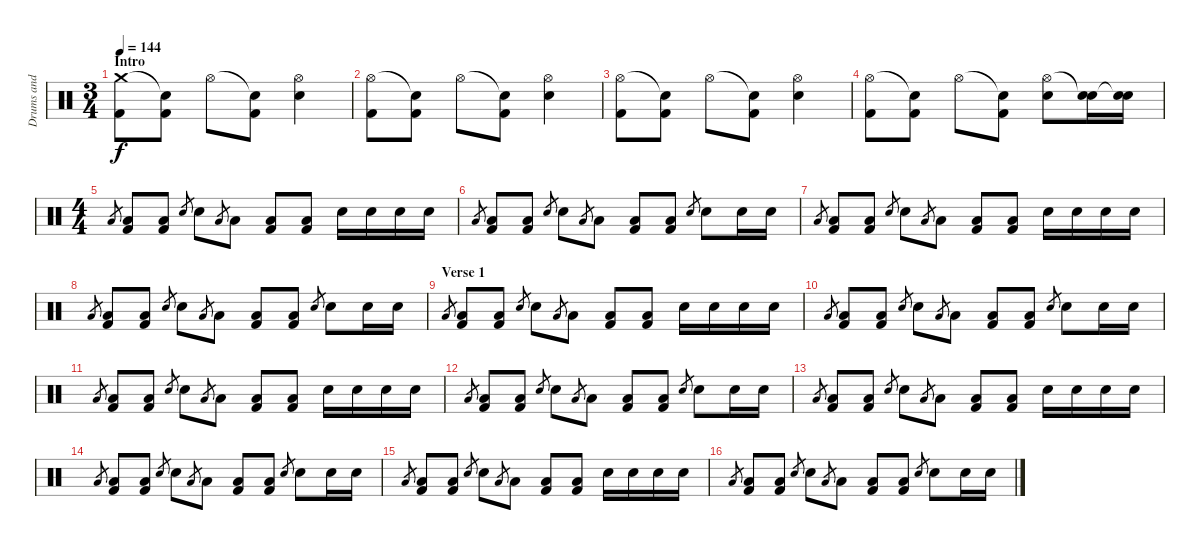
\track ("Drums and Percussion" "Drums and ") {instrument percussion}
\staff {score}
\articulation defaults
\ts (3 4)
\section ("" "Intro")
\tempo 144
\clef neutral
\ks c
("Crash medium (hit)" "Kick (hit) 2").8{dy f} ("Snare (hit)"{t} "Kick (hit) 2").8 "Hi-Hat (open)".8 ("Snare (hit)"{t} "Kick (hit) 2").8 ("Hi-Hat (open)" "Electric Snare (hit)").4 |
("Hi-Hat (open)" "Kick (hit) 2").8 ("Snare (hit)"{t} "Kick (hit) 2").8 "Hi-Hat (open)".8 ("Snare (hit)"{t} "Kick (hit) 2").8 ("Hi-Hat (open)" "Electric Snare (hit)").4 |
("Hi-Hat (open)" "Kick (hit) 2").8 ("Snare (hit)"{t} "Kick (hit) 2").8 "Hi-Hat (open)".8 ("Snare (hit)"{t} "Kick (hit) 2").8 ("Hi-Hat (open)" "Electric Snare (hit)").4 |
("Hi-Hat (open)" "Kick (hit) 2").8 ("Snare (hit)"{t} "Kick (hit) 2").8 "Hi-Hat (open)".8 ("Snare (hit)"{t} "Kick (hit) 2").8 ("Hi-Hat (open)" "Electric Snare (hit)").8 ("Snare (hit)"{t} "Electric Snare (hit)").16 ("Snare (hit)"{t} "Electric Snare (hit)").16 |
\ts (4 4)
"Low Floor Tom (hit)".8{gr} ("Low Floor Tom (hit)" "Kick (hit) 2").8 ("Low Floor Tom (hit)" "Kick (hit) 2").8 "Electric Snare (hit)".8{gr} "Electric Snare (hit)".8 "Low Floor Tom (hit)".8{gr} "Low Floor Tom (hit)".8 ("Low Floor Tom (hit)" "Kick (hit) 2").8 ("Low Floor Tom (hit)" "Kick (hit) 2").8 "Electric Snare (hit)".16 "Electric Snare (hit)".16 "Electric Snare (hit)".16 "Electric Snare (hit)".16 |
"Low Floor Tom (hit)".8{gr} ("Low Floor Tom (hit)" "Kick (hit) 2").8 ("Low Floor Tom (hit)" "Kick (hit) 2").8 "Electric Snare (hit)".8{gr} "Electric Snare (hit)".8 "Low Floor Tom (hit)".8{gr} "Low Floor Tom (hit)".8 ("Low Floor Tom (hit)" "Kick (hit) 2").8 ("Low Floor Tom (hit)" "Kick (hit) 2").8 "Electric Snare (hit)".8{gr} "Electric Snare (hit)".8 "Electric Snare (hit)".16 "Electric Snare (hit)".16 |
"Low Floor Tom (hit)".8{gr} ("Low Floor Tom (hit)" "Kick (hit) 2").8 ("Low Floor Tom (hit)" "Kick (hit) 2").8 "Electric Snare (hit)".8{gr} "Electric Snare (hit)".8 "Low Floor Tom (hit)".8{gr} "Low Floor Tom (hit)".8 ("Low Floor Tom (hit)" "Kick (hit) 2").8 ("Low Floor Tom (hit)" "Kick (hit) 2").8 "Electric Snare (hit)".16 "Electric Snare (hit)".16 "Electric Snare (hit)".16 "Electric Snare (hit)".16 |
"Low Floor Tom (hit)".8{gr} ("Low Floor Tom (hit)" "Kick (hit) 2").8 ("Low Floor Tom (hit)" "Kick (hit) 2").8 "Electric Snare (hit)".8{gr} "Electric Snare (hit)".8 "Low Floor Tom (hit)".8{gr} "Low Floor Tom (hit)".8 ("Low Floor Tom (hit)" "Kick (hit) 2").8 ("Low Floor Tom (hit)" "Kick (hit) 2").8 "Electric Snare (hit)".8{gr} "Electric Snare (hit)".8 "Electric Snare (hit)".16 "Electric Snare (hit)".16 |
\section ("" "Verse 1")
"Low Floor Tom (hit)".8{gr} ("Low Floor Tom (hit)" "Kick (hit) 2").8 ("Low Floor Tom (hit)" "Kick (hit) 2").8 "Electric Snare (hit)".8{gr} "Electric Snare (hit)".8 "Low Floor Tom (hit)".8{gr} "Low Floor Tom (hit)".8 ("Low Floor Tom (hit)" "Kick (hit) 2").8 ("Low Floor Tom (hit)" "Kick (hit) 2").8 "Electric Snare (hit)".16 "Electric Snare (hit)".16 "Electric Snare (hit)".16 "Electric Snare (hit)".16 |
"Low Floor Tom (hit)".8{gr} ("Low Floor Tom (hit)" "Kick (hit) 2").8 ("Low Floor Tom (hit)" "Kick (hit) 2").8 "Electric Snare (hit)".8{gr} "Electric Snare (hit)".8 "Low Floor Tom (hit)".8{gr} "Low Floor Tom (hit)".8 ("Low Floor Tom (hit)" "Kick (hit) 2").8 ("Low Floor Tom (hit)" "Kick (hit) 2").8 "Electric Snare (hit)".8{gr} "Electric Snare (hit)".8 "Electric Snare (hit)".16 "Electric Snare (hit)".16 |
"Low Floor Tom (hit)".8{gr} ("Low Floor Tom (hit)" "Kick (hit) 2").8 ("Low Floor Tom (hit)" "Kick (hit) 2").8 "Electric Snare (hit)".8{gr} "Electric Snare (hit)".8 "Low Floor Tom (hit)".8{gr} "Low Floor Tom (hit)".8 ("Low Floor Tom (hit)" "Kick (hit) 2").8 ("Low Floor Tom (hit)" "Kick (hit) 2").8 "Electric Snare (hit)".16 "Electric Snare (hit)".16 "Electric Snare (hit)".16 "Electric Snare (hit)".16 |
"Low Floor Tom (hit)".8{gr} ("Low Floor Tom (hit)" "Kick (hit) 2").8 ("Low Floor Tom (hit)" "Kick (hit) 2").8 "Electric Snare (hit)".8{gr} "Electric Snare (hit)".8 "Low Floor Tom (hit)".8{gr} "Low Floor Tom (hit)".8 ("Low Floor Tom (hit)" "Kick (hit) 2").8 ("Low Floor Tom (hit)" "Kick (hit) 2").8 "Electric Snare (hit)".8{gr} "Electric Snare (hit)".8 "Electric Snare (hit)".16 "Electric Snare (hit)".16 |
"Low Floor Tom (hit)".8{gr} ("Low Floor Tom (hit)" "Kick (hit) 2").8 ("Low Floor Tom (hit)" "Kick (hit) 2").8 "Electric Snare (hit)".8{gr} "Electric Snare (hit)".8 "Low Floor Tom (hit)".8{gr} "Low Floor Tom (hit)".8 ("Low Floor Tom (hit)" "Kick (hit) 2").8 ("Low Floor Tom (hit)" "Kick (hit) 2").8 "Electric Snare (hit)".16 "Electric Snare (hit)".16 "Electric Snare (hit)".16 "Electric Snare (hit)".16 |
"Low Floor Tom (hit)".8{gr} ("Low Floor Tom (hit)" "Kick (hit) 2").8 ("Low Floor Tom (hit)" "Kick (hit) 2").8 "Electric Snare (hit)".8{gr} "Electric Snare (hit)".8 "Low Floor Tom (hit)".8{gr} "Low Floor Tom (hit)".8 ("Low Floor Tom (hit)" "Kick (hit) 2").8 ("Low Floor Tom (hit)" "Kick (hit) 2").8 "Electric Snare (hit)".8{gr} "Electric Snare (hit)".8 "Electric Snare (hit)".16 "Electric Snare (hit)".16 |
"Low Floor Tom (hit)".8{gr} ("Low Floor Tom (hit)" "Kick (hit) 2").8 ("Low Floor Tom (hit)" "Kick (hit) 2").8 "Electric Snare (hit)".8{gr} "Electric Snare (hit)".8 "Low Floor Tom (hit)".8{gr} "Low Floor Tom (hit)".8 ("Low Floor Tom (hit)" "Kick (hit) 2").8 ("Low Floor Tom (hit)" "Kick (hit) 2").8 "Electric Snare (hit)".16 "Electric Snare (hit)".16 "Electric Snare (hit)".16 "Electric Snare (hit)".16 |
"Low Floor Tom (hit)".8{gr} ("Low Floor Tom (hit)" "Kick (hit) 2").8 ("Low Floor Tom (hit)" "Kick (hit) 2").8 "Electric Snare (hit)".8{gr} "Electric Snare (hit)".8 "Low Floor Tom (hit)".8{gr} "Low Floor Tom (hit)".8 ("Low Floor Tom (hit)" "Kick (hit) 2").8 ("Low Floor Tom (hit)" "Kick (hit) 2").8 "Electric Snare (hit)".8{gr} "Electric Snare (hit)".8 "Electric Snare (hit)".16 "Electric Snare (hit)".16
